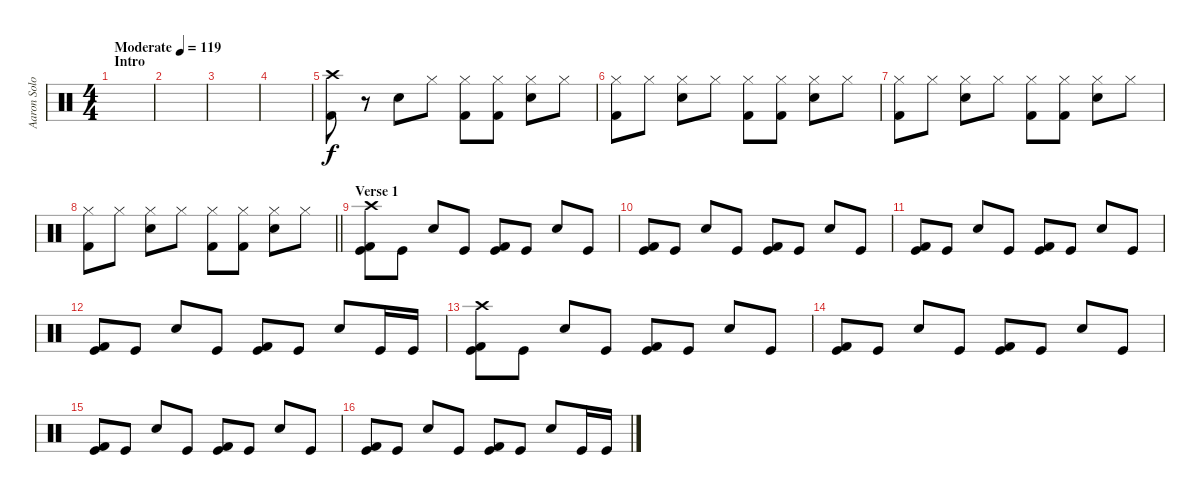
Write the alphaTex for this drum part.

\track ("Aaron Solowoniuk (Drums)" "Aaron Solo") {instrument percussion}
\staff {score}
\articulation defaults
\ts (4 4)
\section ("" "Intro")
\tempo (119 "Moderate")
\clef neutral
\ks c
|
|
|
|
("Crash high (hit)" "Kick (hit) 2").8 r.8 "Electric Snare (hit)".8 "Hi-Hat (closed)".8 ("Hi-Hat (closed)" "Kick (hit) 2").8 ("Hi-Hat (closed)" "Kick (hit) 2").8 ("Hi-Hat (closed)" "Electric Snare (hit)").8 "Hi-Hat (closed)".8 |
("Hi-Hat (closed)" "Kick (hit) 2").8 "Hi-Hat (closed)".8 ("Hi-Hat (closed)" "Electric Snare (hit)").8 "Hi-Hat (closed)".8 ("Hi-Hat (closed)" "Kick (hit) 2").8 ("Hi-Hat (closed)" "Kick (hit) 2").8 ("Hi-Hat (closed)" "Electric Snare (hit)").8 "Hi-Hat (closed)".8 |
("Hi-Hat (closed)" "Kick (hit) 2").8 "Hi-Hat (closed)".8 ("Hi-Hat (closed)" "Electric Snare (hit)").8 "Hi-Hat (closed)".8 ("Hi-Hat (closed)" "Kick (hit) 2").8 ("Hi-Hat (closed)" "Kick (hit) 2").8 ("Hi-Hat (closed)" "Electric Snare (hit)").8 "Hi-Hat (closed)".8 |
\barLineRight lightlight
("Hi-Hat (closed)" "Kick (hit) 2").8 "Hi-Hat (closed)".8 ("Hi-Hat (closed)" "Electric Snare (hit)").8 "Hi-Hat (closed)".8 ("Hi-Hat (closed)" "Kick (hit) 2").8 ("Hi-Hat (closed)" "Kick (hit) 2").8 ("Hi-Hat (closed)" "Electric Snare (hit)").8 "Hi-Hat (closed)".8 |
\section ("" "Verse 1")
("Crash high (hit)" "Kick (hit)" "Kick (hit) 2").8 "Kick (hit)".8 "Electric Snare (hit)".8 "Kick (hit)".8 ("Kick (hit)" "Kick (hit) 2").8 "Kick (hit)".8 "Electric Snare (hit)".8 "Kick (hit)".8 |
("Kick (hit)" "Kick (hit) 2").8 "Kick (hit)".8 "Electric Snare (hit)".8 "Kick (hit)".8 ("Kick (hit)" "Kick (hit) 2").8 "Kick (hit)".8 "Electric Snare (hit)".8 "Kick (hit)".8 |
("Kick (hit)" "Kick (hit) 2").8 "Kick (hit)".8 "Electric Snare (hit)".8 "Kick (hit)".8 ("Kick (hit)" "Kick (hit) 2").8 "Kick (hit)".8 "Electric Snare (hit)".8 "Kick (hit)".8 |
("Kick (hit)" "Kick (hit) 2").8 "Kick (hit)".8 "Electric Snare (hit)".8 "Kick (hit)".8 ("Kick (hit)" "Kick (hit) 2").8 "Kick (hit)".8 "Electric Snare (hit)".8 "Kick (hit)".16 "Kick (hit)".16 |
("Crash high (hit)" "Kick (hit)" "Kick (hit) 2").8 "Kick (hit)".8 "Electric Snare (hit)".8 "Kick (hit)".8 ("Kick (hit)" "Kick (hit) 2").8 "Kick (hit)".8 "Electric Snare (hit)".8 "Kick (hit)".8 |
("Kick (hit)" "Kick (hit) 2").8 "Kick (hit)".8 "Electric Snare (hit)".8 "Kick (hit)".8 ("Kick (hit)" "Kick (hit) 2").8 "Kick (hit)".8 "Electric Snare (hit)".8 "Kick (hit)".8 |
("Kick (hit)" "Kick (hit) 2").8 "Kick (hit)".8 "Electric Snare (hit)".8 "Kick (hit)".8 ("Kick (hit)" "Kick (hit) 2").8 "Kick (hit)".8 "Electric Snare (hit)".8 "Kick (hit)".8 |
("Kick (hit)" "Kick (hit) 2").8 "Kick (hit)".8 "Electric Snare (hit)".8 "Kick (hit)".8 ("Kick (hit)" "Kick (hit) 2").8 "Kick (hit)".8 "Electric Snare (hit)".8 "Kick (hit)".16 "Kick (hit)".16
